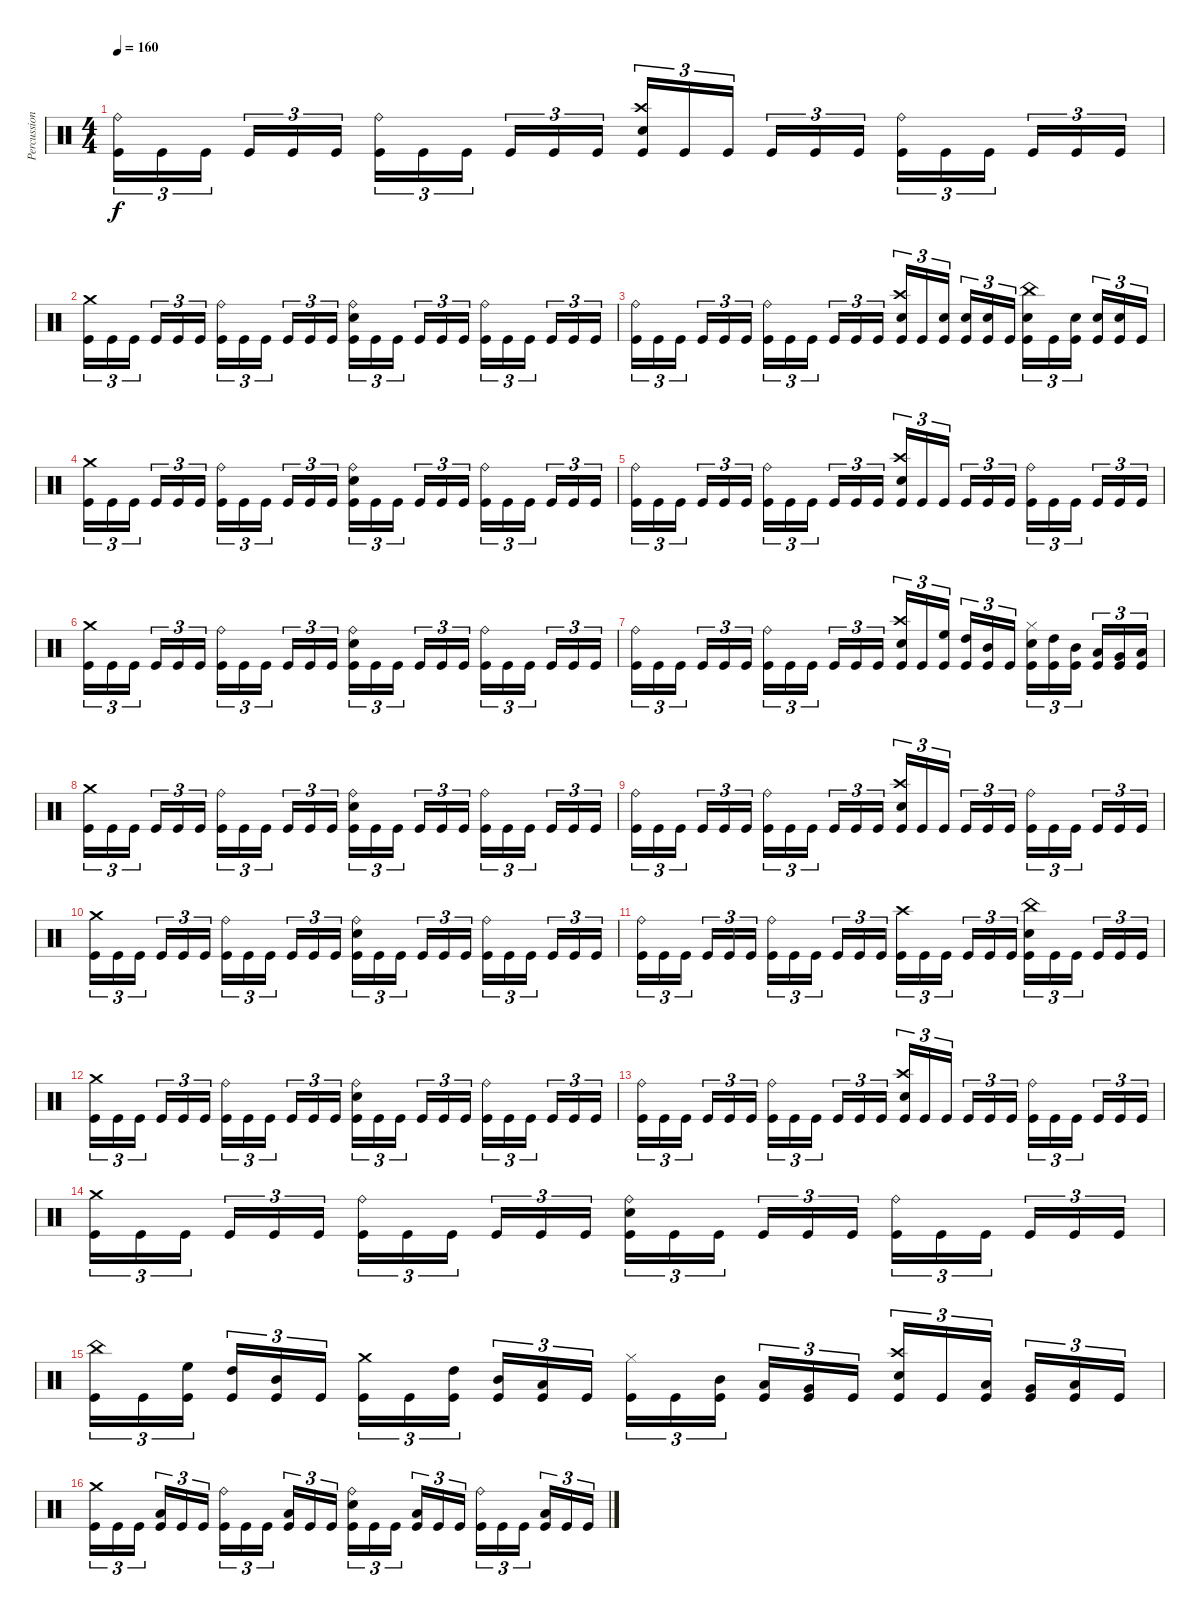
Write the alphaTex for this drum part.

\track ("Percussion" "Percussion") {instrument percussion}
\staff {score}
\articulation defaults
\ts (4 4)
\tempo 160
\clef neutral
\ks c
("Ride (bell)" "Kick (hit)").16{tu (3 2) dy f} "Kick (hit)".16{tu (3 2)} "Kick (hit)".16{tu (3 2) beam splitsecondary} "Kick (hit)".16{tu (3 2)} "Kick (hit)".16{tu (3 2)} "Kick (hit)".16{tu (3 2)} ("Ride (bell)" "Kick (hit)").16{tu (3 2)} "Kick (hit)".16{tu (3 2)} "Kick (hit)".16{tu (3 2) beam splitsecondary} "Kick (hit)".16{tu (3 2)} "Kick (hit)".16{tu (3 2)} "Kick (hit)".16{tu (3 2)} ("Crash high (hit)" "Snare (hit) 2" "Kick (hit)").16{tu (3 2)} "Kick (hit)".16{tu (3 2)} "Kick (hit)".16{tu (3 2) beam splitsecondary} "Kick (hit)".16{tu (3 2)} "Kick (hit)".16{tu (3 2)} "Kick (hit)".16{tu (3 2)} ("Ride (bell)" "Kick (hit)").16{tu (3 2)} "Kick (hit)".16{tu (3 2)} "Kick (hit)".16{tu (3 2) beam splitsecondary} "Kick (hit)".16{tu (3 2)} "Kick (hit)".16{tu (3 2)} "Kick (hit)".16{tu (3 2)} |
("Crash medium (hit)" "Kick (hit)").16{tu (3 2)} "Kick (hit)".16{tu (3 2)} "Kick (hit)".16{tu (3 2) beam splitsecondary} "Kick (hit)".16{tu (3 2)} "Kick (hit)".16{tu (3 2)} "Kick (hit)".16{tu (3 2)} ("Ride (bell)" "Kick (hit)").16{tu (3 2)} "Kick (hit)".16{tu (3 2)} "Kick (hit)".16{tu (3 2) beam splitsecondary} "Kick (hit)".16{tu (3 2)} "Kick (hit)".16{tu (3 2)} "Kick (hit)".16{tu (3 2)} ("Ride (bell)" "Snare (hit) 2" "Kick (hit)").16{tu (3 2)} "Kick (hit)".16{tu (3 2)} "Kick (hit)".16{tu (3 2) beam splitsecondary} "Kick (hit)".16{tu (3 2)} "Kick (hit)".16{tu (3 2)} "Kick (hit)".16{tu (3 2)} ("Ride (bell)" "Kick (hit)").16{tu (3 2)} "Kick (hit)".16{tu (3 2)} "Kick (hit)".16{tu (3 2) beam splitsecondary} "Kick (hit)".16{tu (3 2)} "Kick (hit)".16{tu (3 2)} "Kick (hit)".16{tu (3 2)} |
("Ride (bell)" "Kick (hit)").16{tu (3 2)} "Kick (hit)".16{tu (3 2)} "Kick (hit)".16{tu (3 2) beam splitsecondary} "Kick (hit)".16{tu (3 2)} "Kick (hit)".16{tu (3 2)} "Kick (hit)".16{tu (3 2)} ("Ride (bell)" "Kick (hit)").16{tu (3 2)} "Kick (hit)".16{tu (3 2)} "Kick (hit)".16{tu (3 2) beam splitsecondary} "Kick (hit)".16{tu (3 2)} "Kick (hit)".16{tu (3 2)} "Kick (hit)".16{tu (3 2)} ("Crash high (hit)" "Snare (hit) 2" "Kick (hit)").16{tu (3 2)} "Kick (hit)".16{tu (3 2)} ("Snare (hit) 2" "Kick (hit)").16{tu (3 2) beam splitsecondary} ("Snare (hit) 2" "Kick (hit)").16{tu (3 2)} ("Snare (hit) 2" "Kick (hit)").16{tu (3 2)} "Kick (hit)".16{tu (3 2)} ("China (hit)" "Snare (hit) 2" "Kick (hit)").16{tu (3 2)} "Kick (hit)".16{tu (3 2)} ("Snare (hit) 2" "Kick (hit)").16{tu (3 2) beam splitsecondary} ("Snare (hit) 2" "Kick (hit)").16{tu (3 2)} ("Snare (hit) 2" "Kick (hit)").16{tu (3 2)} "Kick (hit)".16{tu (3 2)} |
("Crash medium (hit)" "Kick (hit)").16{tu (3 2)} "Kick (hit)".16{tu (3 2)} "Kick (hit)".16{tu (3 2) beam splitsecondary} "Kick (hit)".16{tu (3 2)} "Kick (hit)".16{tu (3 2)} "Kick (hit)".16{tu (3 2)} ("Ride (bell)" "Kick (hit)").16{tu (3 2)} "Kick (hit)".16{tu (3 2)} "Kick (hit)".16{tu (3 2) beam splitsecondary} "Kick (hit)".16{tu (3 2)} "Kick (hit)".16{tu (3 2)} "Kick (hit)".16{tu (3 2)} ("Ride (bell)" "Snare (hit) 2" "Kick (hit)").16{tu (3 2)} "Kick (hit)".16{tu (3 2)} "Kick (hit)".16{tu (3 2) beam splitsecondary} "Kick (hit)".16{tu (3 2)} "Kick (hit)".16{tu (3 2)} "Kick (hit)".16{tu (3 2)} ("Ride (bell)" "Kick (hit)").16{tu (3 2)} "Kick (hit)".16{tu (3 2)} "Kick (hit)".16{tu (3 2) beam splitsecondary} "Kick (hit)".16{tu (3 2)} "Kick (hit)".16{tu (3 2)} "Kick (hit)".16{tu (3 2)} |
("Ride (bell)" "Kick (hit)").16{tu (3 2)} "Kick (hit)".16{tu (3 2)} "Kick (hit)".16{tu (3 2) beam splitsecondary} "Kick (hit)".16{tu (3 2)} "Kick (hit)".16{tu (3 2)} "Kick (hit)".16{tu (3 2)} ("Ride (bell)" "Kick (hit)").16{tu (3 2)} "Kick (hit)".16{tu (3 2)} "Kick (hit)".16{tu (3 2) beam splitsecondary} "Kick (hit)".16{tu (3 2)} "Kick (hit)".16{tu (3 2)} "Kick (hit)".16{tu (3 2)} ("Crash high (hit)" "Snare (hit) 2" "Kick (hit)").16{tu (3 2)} "Kick (hit)".16{tu (3 2)} "Kick (hit)".16{tu (3 2) beam splitsecondary} "Kick (hit)".16{tu (3 2)} "Kick (hit)".16{tu (3 2)} "Kick (hit)".16{tu (3 2)} ("Ride (bell)" "Kick (hit)").16{tu (3 2)} "Kick (hit)".16{tu (3 2)} "Kick (hit)".16{tu (3 2) beam splitsecondary} "Kick (hit)".16{tu (3 2)} "Kick (hit)".16{tu (3 2)} "Kick (hit)".16{tu (3 2)} |
("Crash medium (hit)" "Kick (hit)").16{tu (3 2)} "Kick (hit)".16{tu (3 2)} "Kick (hit)".16{tu (3 2) beam splitsecondary} "Kick (hit)".16{tu (3 2)} "Kick (hit)".16{tu (3 2)} "Kick (hit)".16{tu (3 2)} ("Ride (bell)" "Kick (hit)").16{tu (3 2)} "Kick (hit)".16{tu (3 2)} "Kick (hit)".16{tu (3 2) beam splitsecondary} "Kick (hit)".16{tu (3 2)} "Kick (hit)".16{tu (3 2)} "Kick (hit)".16{tu (3 2)} ("Ride (bell)" "Snare (hit) 2" "Kick (hit)").16{tu (3 2)} "Kick (hit)".16{tu (3 2)} "Kick (hit)".16{tu (3 2) beam splitsecondary} "Kick (hit)".16{tu (3 2)} "Kick (hit)".16{tu (3 2)} "Kick (hit)".16{tu (3 2)} ("Ride (bell)" "Kick (hit)").16{tu (3 2)} "Kick (hit)".16{tu (3 2)} "Kick (hit)".16{tu (3 2) beam splitsecondary} "Kick (hit)".16{tu (3 2)} "Kick (hit)".16{tu (3 2)} "Kick (hit)".16{tu (3 2)} |
("Ride (bell)" "Kick (hit)").16{tu (3 2)} "Kick (hit)".16{tu (3 2)} "Kick (hit)".16{tu (3 2) beam splitsecondary} "Kick (hit)".16{tu (3 2)} "Kick (hit)".16{tu (3 2)} "Kick (hit)".16{tu (3 2)} ("Ride (bell)" "Kick (hit)").16{tu (3 2)} "Kick (hit)".16{tu (3 2)} "Kick (hit)".16{tu (3 2) beam splitsecondary} "Kick (hit)".16{tu (3 2)} "Kick (hit)".16{tu (3 2)} "Kick (hit)".16{tu (3 2)} ("Crash high (hit)" "Snare (hit) 2" "Kick (hit)").16{tu (3 2)} "Kick (hit)".16{tu (3 2)} ("High Floor Tom (hit)" "Kick (hit)").16{tu (3 2) beam splitsecondary} ("High Tom (hit)" "Kick (hit)").16{tu (3 2)} ("Mid Tom (hit)" "Kick (hit)").16{tu (3 2)} "Kick (hit)".16{tu (3 2)} ("Hi-Hat (closed)" "Snare (hit) 2" "Kick (hit)").16{tu (3 2)} ("High Tom (hit)" "Kick (hit)").16{tu (3 2)} ("Mid Tom (hit)" "Kick (hit)").16{tu (3 2) beam splitsecondary} ("Low Tom (hit)" "Kick (hit)").16{tu (3 2)} ("Very Low Tom (hit)" "Kick (hit)").16{tu (3 2)} ("Low Floor Tom (hit)" "Kick (hit)").16{tu (3 2)} |
("Crash medium (hit)" "Kick (hit)").16{tu (3 2)} "Kick (hit)".16{tu (3 2)} "Kick (hit)".16{tu (3 2) beam splitsecondary} "Kick (hit)".16{tu (3 2)} "Kick (hit)".16{tu (3 2)} "Kick (hit)".16{tu (3 2)} ("Ride (bell)" "Kick (hit)").16{tu (3 2)} "Kick (hit)".16{tu (3 2)} "Kick (hit)".16{tu (3 2) beam splitsecondary} "Kick (hit)".16{tu (3 2)} "Kick (hit)".16{tu (3 2)} "Kick (hit)".16{tu (3 2)} ("Ride (bell)" "Snare (hit) 2" "Kick (hit)").16{tu (3 2)} "Kick (hit)".16{tu (3 2)} "Kick (hit)".16{tu (3 2) beam splitsecondary} "Kick (hit)".16{tu (3 2)} "Kick (hit)".16{tu (3 2)} "Kick (hit)".16{tu (3 2)} ("Ride (bell)" "Kick (hit)").16{tu (3 2)} "Kick (hit)".16{tu (3 2)} "Kick (hit)".16{tu (3 2) beam splitsecondary} "Kick (hit)".16{tu (3 2)} "Kick (hit)".16{tu (3 2)} "Kick (hit)".16{tu (3 2)} |
("Ride (bell)" "Kick (hit)").16{tu (3 2)} "Kick (hit)".16{tu (3 2)} "Kick (hit)".16{tu (3 2) beam splitsecondary} "Kick (hit)".16{tu (3 2)} "Kick (hit)".16{tu (3 2)} "Kick (hit)".16{tu (3 2)} ("Ride (bell)" "Kick (hit)").16{tu (3 2)} "Kick (hit)".16{tu (3 2)} "Kick (hit)".16{tu (3 2) beam splitsecondary} "Kick (hit)".16{tu (3 2)} "Kick (hit)".16{tu (3 2)} "Kick (hit)".16{tu (3 2)} ("Crash high (hit)" "Snare (hit) 2" "Kick (hit)").16{tu (3 2)} "Kick (hit)".16{tu (3 2)} "Kick (hit)".16{tu (3 2) beam splitsecondary} "Kick (hit)".16{tu (3 2)} "Kick (hit)".16{tu (3 2)} "Kick (hit)".16{tu (3 2)} ("Ride (bell)" "Kick (hit)").16{tu (3 2)} "Kick (hit)".16{tu (3 2)} "Kick (hit)".16{tu (3 2) beam splitsecondary} "Kick (hit)".16{tu (3 2)} "Kick (hit)".16{tu (3 2)} "Kick (hit)".16{tu (3 2)} |
("Crash medium (hit)" "Kick (hit)").16{tu (3 2)} "Kick (hit)".16{tu (3 2)} "Kick (hit)".16{tu (3 2) beam splitsecondary} "Kick (hit)".16{tu (3 2)} "Kick (hit)".16{tu (3 2)} "Kick (hit)".16{tu (3 2)} ("Ride (bell)" "Kick (hit)").16{tu (3 2)} "Kick (hit)".16{tu (3 2)} "Kick (hit)".16{tu (3 2) beam splitsecondary} "Kick (hit)".16{tu (3 2)} "Kick (hit)".16{tu (3 2)} "Kick (hit)".16{tu (3 2)} ("Ride (bell)" "Snare (hit) 2" "Kick (hit)").16{tu (3 2)} "Kick (hit)".16{tu (3 2)} "Kick (hit)".16{tu (3 2) beam splitsecondary} "Kick (hit)".16{tu (3 2)} "Kick (hit)".16{tu (3 2)} "Kick (hit)".16{tu (3 2)} ("Ride (bell)" "Kick (hit)").16{tu (3 2)} "Kick (hit)".16{tu (3 2)} "Kick (hit)".16{tu (3 2) beam splitsecondary} "Kick (hit)".16{tu (3 2)} "Kick (hit)".16{tu (3 2)} "Kick (hit)".16{tu (3 2)} |
("Ride (bell)" "Kick (hit)").16{tu (3 2)} "Kick (hit)".16{tu (3 2)} "Kick (hit)".16{tu (3 2) beam splitsecondary} "Kick (hit)".16{tu (3 2)} "Kick (hit)".16{tu (3 2)} "Kick (hit)".16{tu (3 2)} ("Ride (bell)" "Kick (hit)").16{tu (3 2)} "Kick (hit)".16{tu (3 2)} "Kick (hit)".16{tu (3 2) beam splitsecondary} "Kick (hit)".16{tu (3 2)} "Kick (hit)".16{tu (3 2)} "Kick (hit)".16{tu (3 2)} ("Crash high (hit)" "Kick (hit)").16{tu (3 2)} "Kick (hit)".16{tu (3 2)} "Kick (hit)".16{tu (3 2) beam splitsecondary} "Kick (hit)".16{tu (3 2)} "Kick (hit)".16{tu (3 2)} "Kick (hit)".16{tu (3 2)} ("China (hit)" "Snare (hit) 2" "Kick (hit)").16{tu (3 2)} "Kick (hit)".16{tu (3 2)} "Kick (hit)".16{tu (3 2) beam splitsecondary} "Kick (hit)".16{tu (3 2)} "Kick (hit)".16{tu (3 2)} "Kick (hit)".16{tu (3 2)} |
("Crash medium (hit)" "Kick (hit)").16{tu (3 2)} "Kick (hit)".16{tu (3 2)} "Kick (hit)".16{tu (3 2) beam splitsecondary} "Kick (hit)".16{tu (3 2)} "Kick (hit)".16{tu (3 2)} "Kick (hit)".16{tu (3 2)} ("Ride (bell)" "Kick (hit)").16{tu (3 2)} "Kick (hit)".16{tu (3 2)} "Kick (hit)".16{tu (3 2) beam splitsecondary} "Kick (hit)".16{tu (3 2)} "Kick (hit)".16{tu (3 2)} "Kick (hit)".16{tu (3 2)} ("Ride (bell)" "Snare (hit) 2" "Kick (hit)").16{tu (3 2)} "Kick (hit)".16{tu (3 2)} "Kick (hit)".16{tu (3 2) beam splitsecondary} "Kick (hit)".16{tu (3 2)} "Kick (hit)".16{tu (3 2)} "Kick (hit)".16{tu (3 2)} ("Ride (bell)" "Kick (hit)").16{tu (3 2)} "Kick (hit)".16{tu (3 2)} "Kick (hit)".16{tu (3 2) beam splitsecondary} "Kick (hit)".16{tu (3 2)} "Kick (hit)".16{tu (3 2)} "Kick (hit)".16{tu (3 2)} |
("Ride (bell)" "Kick (hit)").16{tu (3 2)} "Kick (hit)".16{tu (3 2)} "Kick (hit)".16{tu (3 2) beam splitsecondary} "Kick (hit)".16{tu (3 2)} "Kick (hit)".16{tu (3 2)} "Kick (hit)".16{tu (3 2)} ("Ride (bell)" "Kick (hit)").16{tu (3 2)} "Kick (hit)".16{tu (3 2)} "Kick (hit)".16{tu (3 2) beam splitsecondary} "Kick (hit)".16{tu (3 2)} "Kick (hit)".16{tu (3 2)} "Kick (hit)".16{tu (3 2)} ("Crash high (hit)" "Snare (hit) 2" "Kick (hit)").16{tu (3 2)} "Kick (hit)".16{tu (3 2)} "Kick (hit)".16{tu (3 2) beam splitsecondary} "Kick (hit)".16{tu (3 2)} "Kick (hit)".16{tu (3 2)} "Kick (hit)".16{tu (3 2)} ("Ride (bell)" "Kick (hit)").16{tu (3 2)} "Kick (hit)".16{tu (3 2)} "Kick (hit)".16{tu (3 2) beam splitsecondary} "Kick (hit)".16{tu (3 2)} "Kick (hit)".16{tu (3 2)} "Kick (hit)".16{tu (3 2)} |
("Crash medium (hit)" "Kick (hit)").16{tu (3 2)} "Kick (hit)".16{tu (3 2)} "Kick (hit)".16{tu (3 2) beam splitsecondary} "Kick (hit)".16{tu (3 2)} "Kick (hit)".16{tu (3 2)} "Kick (hit)".16{tu (3 2)} ("Ride (bell)" "Kick (hit)").16{tu (3 2)} "Kick (hit)".16{tu (3 2)} "Kick (hit)".16{tu (3 2) beam splitsecondary} "Kick (hit)".16{tu (3 2)} "Kick (hit)".16{tu (3 2)} "Kick (hit)".16{tu (3 2)} ("Ride (bell)" "Snare (hit) 2" "Kick (hit)").16{tu (3 2)} "Kick (hit)".16{tu (3 2)} "Kick (hit)".16{tu (3 2) beam splitsecondary} "Kick (hit)".16{tu (3 2)} "Kick (hit)".16{tu (3 2)} "Kick (hit)".16{tu (3 2)} ("Ride (bell)" "Kick (hit)").16{tu (3 2)} "Kick (hit)".16{tu (3 2)} "Kick (hit)".16{tu (3 2) beam splitsecondary} "Kick (hit)".16{tu (3 2)} "Kick (hit)".16{tu (3 2)} "Kick (hit)".16{tu (3 2)} |
("China (hit)" "Kick (hit)").16{tu (3 2)} "Kick (hit)".16{tu (3 2)} ("High Floor Tom (hit)" "Kick (hit)").16{tu (3 2) beam splitsecondary} ("High Tom (hit)" "Kick (hit)").16{tu (3 2)} ("Mid Tom (hit)" "Kick (hit)").16{tu (3 2)} "Kick (hit)".16{tu (3 2)} ("Crash medium (hit)" "Kick (hit)").16{tu (3 2)} "Kick (hit)".16{tu (3 2)} ("High Tom (hit)" "Kick (hit)").16{tu (3 2) beam splitsecondary} ("Mid Tom (hit)" "Kick (hit)").16{tu (3 2)} ("Low Tom (hit)" "Kick (hit)").16{tu (3 2)} "Kick (hit)".16{tu (3 2)} ("Hi-Hat (closed)" "Kick (hit)").16{tu (3 2)} "Kick (hit)".16{tu (3 2)} ("Mid Tom (hit)" "Kick (hit)").16{tu (3 2) beam splitsecondary} ("Low Tom (hit)" "Kick (hit)").16{tu (3 2)} ("Very Low Tom (hit)" "Kick (hit)").16{tu (3 2)} "Kick (hit)".16{tu (3 2)} ("Crash high (hit)" "Snare (hit) 2" "Kick (hit)").16{tu (3 2)} "Kick (hit)".16{tu (3 2)} ("Low Tom (hit)" "Kick (hit)").16{tu (3 2) beam splitsecondary} ("Very Low Tom (hit)" "Kick (hit)").16{tu (3 2)} ("Low Floor Tom (hit)" "Kick (hit)").16{tu (3 2)} "Kick (hit)".16{tu (3 2)} |
("Crash medium (hit)" "Kick (hit)").16{tu (3 2)} "Kick (hit)".16{tu (3 2)} "Kick (hit)".16{tu (3 2) beam splitsecondary} ("Low Tom (hit)" "Kick (hit)").16{tu (3 2)} "Kick (hit)".16{tu (3 2)} "Kick (hit)".16{tu (3 2)} ("Ride (bell)" "Kick (hit)").16{tu (3 2)} "Kick (hit)".16{tu (3 2)} "Kick (hit)".16{tu (3 2) beam splitsecondary} ("Low Tom (hit)" "Kick (hit)").16{tu (3 2)} "Kick (hit)".16{tu (3 2)} "Kick (hit)".16{tu (3 2)} ("Ride (bell)" "Snare (hit) 2" "Kick (hit)").16{tu (3 2)} "Kick (hit)".16{tu (3 2)} "Kick (hit)".16{tu (3 2) beam splitsecondary} ("Low Tom (hit)" "Kick (hit)").16{tu (3 2)} "Kick (hit)".16{tu (3 2)} "Kick (hit)".16{tu (3 2)} ("Ride (bell)" "Kick (hit)").16{tu (3 2)} "Kick (hit)".16{tu (3 2)} "Kick (hit)".16{tu (3 2) beam splitsecondary} ("Low Tom (hit)" "Kick (hit)").16{tu (3 2)} "Kick (hit)".16{tu (3 2)} "Kick (hit)".16{tu (3 2)}
